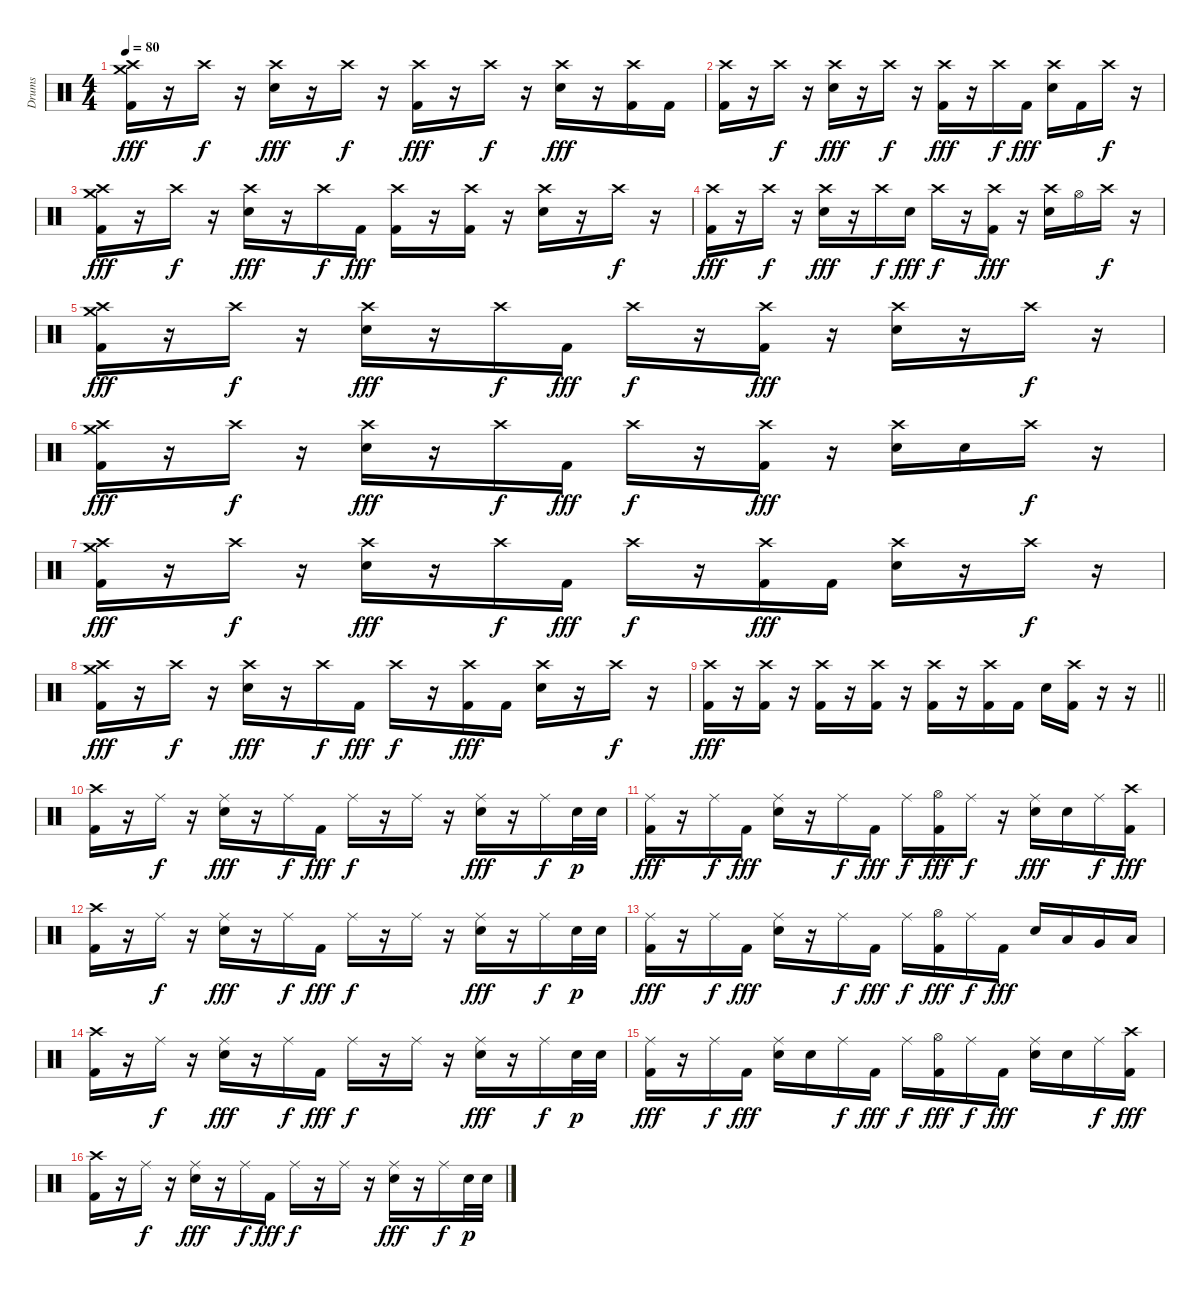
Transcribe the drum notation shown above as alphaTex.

\track ("Drums" "Drums") {instrument percussion}
\staff {score}
\articulation defaults
\ts (4 4)
\section ("" "")
\tempo 80
\clef neutral
\ks c
("Crash high (hit)" "Crash medium (hit)" "Kick (hit) 2").16{dy fff} r.16 "Crash high (hit)".16{dy f} r.16 ("Crash high (hit)" "Electric Snare (hit)").16{dy fff} r.16 "Crash high (hit)".16{dy f} r.16 ("Crash high (hit)" "Kick (hit) 2").16{dy fff} r.16 "Crash high (hit)".16{dy f} r.16 ("Crash high (hit)" "Electric Snare (hit)").16{dy fff} r.16 ("Crash high (hit)" "Kick (hit) 2").16 "Kick (hit) 2".16 |
("Crash high (hit)" "Kick (hit) 2").16 r.16 "Crash high (hit)".16{dy f} r.16 ("Crash high (hit)" "Electric Snare (hit)").16{dy fff} r.16 "Crash high (hit)".16{dy f} r.16 ("Crash high (hit)" "Kick (hit) 2").16{dy fff} r.16 "Crash high (hit)".16{dy f} "Kick (hit) 2".16{dy fff} ("Crash high (hit)" "Electric Snare (hit)").16 "Kick (hit) 2".16 "Crash high (hit)".16{dy f} r.16 |
("Crash high (hit)" "Crash medium (hit)" "Kick (hit) 2").16{dy fff} r.16 "Crash high (hit)".16{dy f} r.16 ("Crash high (hit)" "Electric Snare (hit)").16{dy fff} r.16 "Crash high (hit)".16{dy f} "Kick (hit) 2".16{dy fff} ("Crash high (hit)" "Kick (hit) 2").16 r.16 ("Crash high (hit)" "Kick (hit) 2").16 r.16 ("Crash high (hit)" "Electric Snare (hit)").16 r.16 "Crash high (hit)".16{dy f} r.16 |
("Crash high (hit)" "Kick (hit) 2").16{dy fff} r.16 "Crash high (hit)".16{dy f} r.16 ("Crash high (hit)" "Electric Snare (hit)").16{dy fff} r.16 "Crash high (hit)".16{dy f} "Electric Snare (hit)".16{dy fff} "Crash high (hit)".16{dy f} r.16 ("Crash high (hit)" "Kick (hit) 2").16{dy fff} r.16 ("Crash high (hit)" "Electric Snare (hit)").16 "Hi-Hat (open)".16 "Crash high (hit)".16{dy f} r.16 |
("Crash high (hit)" "Crash medium (hit)" "Kick (hit) 2").16{dy fff} r.16 "Crash high (hit)".16{dy f} r.16 ("Crash high (hit)" "Electric Snare (hit)").16{dy fff} r.16 "Crash high (hit)".16{dy f} "Kick (hit) 2".16{dy fff} "Crash high (hit)".16{dy f} r.16 ("Crash high (hit)" "Kick (hit) 2").16{dy fff} r.16 ("Crash high (hit)" "Electric Snare (hit)").16 r.16 "Crash high (hit)".16{dy f} r.16 |
("Crash high (hit)" "Crash medium (hit)" "Kick (hit) 2").16{dy fff} r.16 "Crash high (hit)".16{dy f} r.16 ("Crash high (hit)" "Electric Snare (hit)").16{dy fff} r.16 "Crash high (hit)".16{dy f} "Kick (hit) 2".16{dy fff} "Crash high (hit)".16{dy f} r.16 ("Crash high (hit)" "Kick (hit) 2").16{dy fff} r.16 ("Crash high (hit)" "Electric Snare (hit)").16 "Electric Snare (hit)".16 "Crash high (hit)".16{dy f} r.16 |
("Crash high (hit)" "Crash medium (hit)" "Kick (hit) 2").16{dy fff} r.16 "Crash high (hit)".16{dy f} r.16 ("Crash high (hit)" "Electric Snare (hit)").16{dy fff} r.16 "Crash high (hit)".16{dy f} "Kick (hit) 2".16{dy fff} "Crash high (hit)".16{dy f} r.16 ("Crash high (hit)" "Kick (hit) 2").16{dy fff} "Kick (hit) 2".16 ("Crash high (hit)" "Electric Snare (hit)").16 r.16 "Crash high (hit)".16{dy f} r.16 |
("Crash high (hit)" "Crash medium (hit)" "Kick (hit) 2").16{dy fff} r.16 "Crash high (hit)".16{dy f} r.16 ("Crash high (hit)" "Electric Snare (hit)").16{dy fff} r.16 "Crash high (hit)".16{dy f} "Kick (hit) 2".16{dy fff} "Crash high (hit)".16{dy f} r.16 ("Crash high (hit)" "Kick (hit) 2").16{dy fff} "Kick (hit) 2".16 ("Crash high (hit)" "Electric Snare (hit)").16 r.16 "Crash high (hit)".16{dy f} r.16 |
\barLineRight lightlight
("Crash high (hit)" "Kick (hit) 2").16{dy fff} r.16 ("Crash high (hit)" "Kick (hit) 2").16 r.16 ("Crash high (hit)" "Kick (hit) 2").16 r.16 ("Crash high (hit)" "Kick (hit) 2").16 r.16 ("Crash high (hit)" "Kick (hit) 2").16 r.16 ("Crash high (hit)" "Kick (hit) 2").16 "Kick (hit) 2".16 "Electric Snare (hit)".16 ("Crash high (hit)" "Kick (hit) 2").16 r.16 r.16 |
\section ("" "")
("Crash high (hit)" "Kick (hit) 2").16 r.16 "Ride (middle)".16{dy f} r.16 ("Ride (middle)" "Electric Snare (hit)").16{dy fff} r.16 "Ride (middle)".16{dy f} "Kick (hit) 2".16{dy fff} "Ride (middle)".16{dy f} r.16 "Ride (middle)".16 r.16 ("Ride (middle)" "Electric Snare (hit)").16{dy fff} r.16 "Ride (middle)".16{dy f} "Electric Snare (hit)".32{dy p} "Electric Snare (hit)".32 |
("Ride (middle)" "Kick (hit) 2").16{dy fff} r.16 "Ride (middle)".16{dy f} "Kick (hit) 2".16{dy fff} ("Ride (middle)" "Electric Snare (hit)").16 r.16 "Ride (middle)".16{dy f} "Kick (hit) 2".16{dy fff} "Ride (middle)".16{dy f} ("Hi-Hat (open)" "Kick (hit) 2").16{dy fff} "Ride (middle)".16{dy f} r.16 ("Ride (middle)" "Electric Snare (hit)").16{dy fff} "Electric Snare (hit)".16 "Ride (middle)".16{dy f} ("Crash high (hit)" "Kick (hit) 2").16{dy fff} |
("Crash high (hit)" "Kick (hit) 2").16 r.16 "Ride (middle)".16{dy f} r.16 ("Ride (middle)" "Electric Snare (hit)").16{dy fff} r.16 "Ride (middle)".16{dy f} "Kick (hit) 2".16{dy fff} "Ride (middle)".16{dy f} r.16 "Ride (middle)".16 r.16 ("Ride (middle)" "Electric Snare (hit)").16{dy fff} r.16 "Ride (middle)".16{dy f} "Electric Snare (hit)".32{dy p} "Electric Snare (hit)".32 |
("Ride (middle)" "Kick (hit) 2").16{dy fff} r.16 "Ride (middle)".16{dy f} "Kick (hit) 2".16{dy fff} ("Ride (middle)" "Electric Snare (hit)").16 r.16 "Ride (middle)".16{dy f} "Kick (hit) 2".16{dy fff} "Ride (middle)".16{dy f} ("Hi-Hat (open)" "Kick (hit) 2").16{dy fff} "Ride (middle)".16{dy f} "Kick (hit) 2".16{dy fff} "Electric Snare (hit)".16 "Low Tom (hit)".16 "Very Low Tom (hit)".16 "Low Floor Tom (hit)".16 |
("Crash high (hit)" "Kick (hit) 2").16 r.16 "Ride (middle)".16{dy f} r.16 ("Ride (middle)" "Electric Snare (hit)").16{dy fff} r.16 "Ride (middle)".16{dy f} "Kick (hit) 2".16{dy fff} "Ride (middle)".16{dy f} r.16 "Ride (middle)".16 r.16 ("Ride (middle)" "Electric Snare (hit)").16{dy fff} r.16 "Ride (middle)".16{dy f} "Electric Snare (hit)".32{dy p} "Electric Snare (hit)".32 |
("Ride (middle)" "Kick (hit) 2").16{dy fff} r.16 "Ride (middle)".16{dy f} "Kick (hit) 2".16{dy fff} ("Ride (middle)" "Electric Snare (hit)").16 "Electric Snare (hit)".16 "Ride (middle)".16{dy f} "Kick (hit) 2".16{dy fff} "Ride (middle)".16{dy f} ("Hi-Hat (open)" "Kick (hit) 2").16{dy fff} "Ride (middle)".16{dy f} "Kick (hit) 2".16{dy fff} ("Ride (middle)" "Electric Snare (hit)").16 "Electric Snare (hit)".16 "Ride (middle)".16{dy f} ("Crash high (hit)" "Kick (hit) 2").16{dy fff} |
("Crash high (hit)" "Kick (hit) 2").16 r.16 "Ride (middle)".16{dy f} r.16 ("Ride (middle)" "Electric Snare (hit)").16{dy fff} r.16 "Ride (middle)".16{dy f} "Kick (hit) 2".16{dy fff} "Ride (middle)".16{dy f} r.16 "Ride (middle)".16 r.16 ("Ride (middle)" "Electric Snare (hit)").16{dy fff} r.16 "Ride (middle)".16{dy f} "Electric Snare (hit)".32{dy p} "Electric Snare (hit)".32
